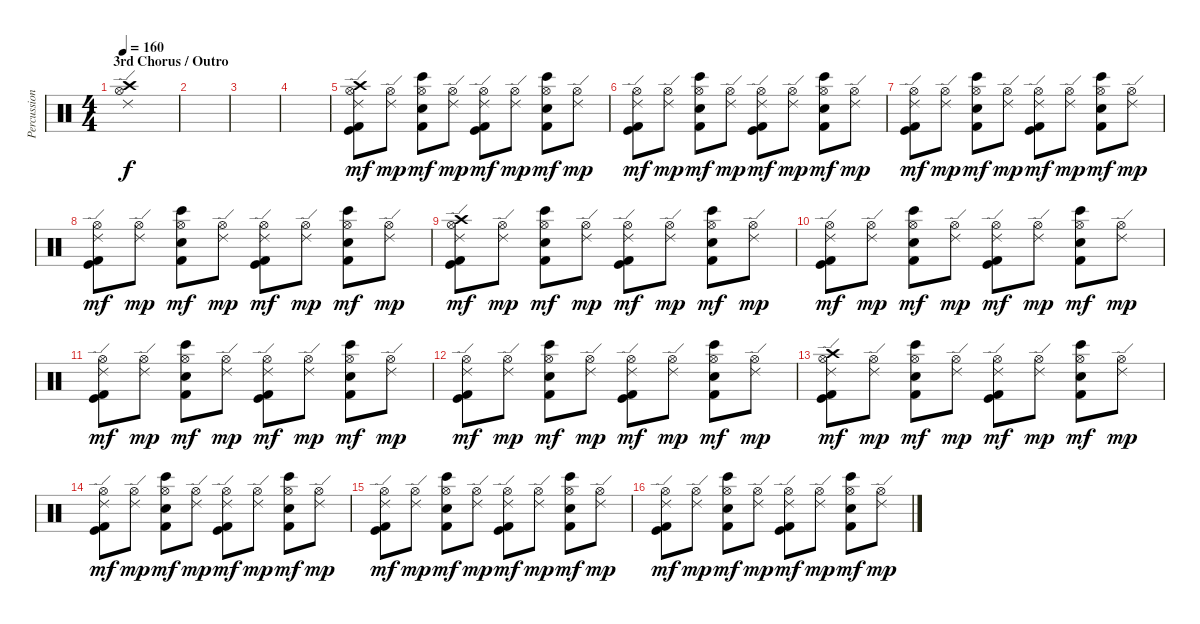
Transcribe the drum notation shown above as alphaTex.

\track ("Percussion" "Percussion") {instrument percussion}
\staff {score}
\articulation defaults
\ts (4 4)
\section ("" "3rd Chorus / Outro")
\tempo 160
\clef neutral
\ks c
("Crash high (hit)" "Ride (edge) 2" "Hi-Hat (open)").1{dy f} |
|
|
|
("Crash high (hit)" "Ride (edge) 2" "Hi-Hat (open)" "Kick (hit)" "Kick (hit) 2").8{dy mf} ("Ride (edge) 2" "Hi-Hat (open)").8{dy mp} ("Bongo High (hit)" "Hi-Hat (open)" "Hand Clap (hit)" "Kick (hit) 2").8{dy mf} ("Ride (edge) 2" "Hi-Hat (open)").8{dy mp} ("Ride (edge) 2" "Hi-Hat (open)" "Kick (hit)" "Kick (hit) 2").8{dy mf} ("Ride (edge) 2" "Hi-Hat (open)").8{dy mp} ("Bongo High (hit)" "Hi-Hat (open)" "Hand Clap (hit)" "Kick (hit) 2").8{dy mf} ("Ride (edge) 2" "Hi-Hat (open)").8{dy mp} |
("Ride (edge) 2" "Hi-Hat (open)" "Kick (hit)" "Kick (hit) 2").8{dy mf} ("Ride (edge) 2" "Hi-Hat (open)").8{dy mp} ("Bongo High (hit)" "Hi-Hat (open)" "Hand Clap (hit)" "Kick (hit) 2").8{dy mf} ("Ride (edge) 2" "Hi-Hat (open)").8{dy mp} ("Ride (edge) 2" "Hi-Hat (open)" "Kick (hit)" "Kick (hit) 2").8{dy mf} ("Ride (edge) 2" "Hi-Hat (open)").8{dy mp} ("Bongo High (hit)" "Hi-Hat (open)" "Hand Clap (hit)" "Kick (hit) 2").8{dy mf} ("Ride (edge) 2" "Hi-Hat (open)").8{dy mp} |
("Ride (edge) 2" "Hi-Hat (open)" "Kick (hit)" "Kick (hit) 2").8{dy mf} ("Ride (edge) 2" "Hi-Hat (open)").8{dy mp} ("Bongo High (hit)" "Hi-Hat (open)" "Hand Clap (hit)" "Kick (hit) 2").8{dy mf} ("Ride (edge) 2" "Hi-Hat (open)").8{dy mp} ("Ride (edge) 2" "Hi-Hat (open)" "Kick (hit)" "Kick (hit) 2").8{dy mf} ("Ride (edge) 2" "Hi-Hat (open)").8{dy mp} ("Bongo High (hit)" "Hi-Hat (open)" "Hand Clap (hit)" "Kick (hit) 2").8{dy mf} ("Ride (edge) 2" "Hi-Hat (open)").8{dy mp} |
("Ride (edge) 2" "Hi-Hat (open)" "Kick (hit)" "Kick (hit) 2").8{dy mf} ("Ride (edge) 2" "Hi-Hat (open)").8{dy mp} ("Bongo High (hit)" "Hi-Hat (open)" "Hand Clap (hit)" "Kick (hit) 2").8{dy mf} ("Ride (edge) 2" "Hi-Hat (open)").8{dy mp} ("Ride (edge) 2" "Hi-Hat (open)" "Kick (hit)" "Kick (hit) 2").8{dy mf} ("Ride (edge) 2" "Hi-Hat (open)").8{dy mp} ("Bongo High (hit)" "Hi-Hat (open)" "Hand Clap (hit)" "Kick (hit) 2").8{dy mf} ("Ride (edge) 2" "Hi-Hat (open)").8{dy mp} |
("Crash high (hit)" "Ride (edge) 2" "Hi-Hat (open)" "Kick (hit)" "Kick (hit) 2").8{dy mf} ("Ride (edge) 2" "Hi-Hat (open)").8{dy mp} ("Bongo High (hit)" "Hi-Hat (open)" "Hand Clap (hit)" "Kick (hit) 2").8{dy mf} ("Ride (edge) 2" "Hi-Hat (open)").8{dy mp} ("Ride (edge) 2" "Hi-Hat (open)" "Kick (hit)" "Kick (hit) 2").8{dy mf} ("Ride (edge) 2" "Hi-Hat (open)").8{dy mp} ("Bongo High (hit)" "Hi-Hat (open)" "Hand Clap (hit)" "Kick (hit) 2").8{dy mf} ("Ride (edge) 2" "Hi-Hat (open)").8{dy mp} |
("Ride (edge) 2" "Hi-Hat (open)" "Kick (hit)" "Kick (hit) 2").8{dy mf} ("Ride (edge) 2" "Hi-Hat (open)").8{dy mp} ("Bongo High (hit)" "Hi-Hat (open)" "Hand Clap (hit)" "Kick (hit) 2").8{dy mf} ("Ride (edge) 2" "Hi-Hat (open)").8{dy mp} ("Ride (edge) 2" "Hi-Hat (open)" "Kick (hit)" "Kick (hit) 2").8{dy mf} ("Ride (edge) 2" "Hi-Hat (open)").8{dy mp} ("Bongo High (hit)" "Hi-Hat (open)" "Hand Clap (hit)" "Kick (hit) 2").8{dy mf} ("Ride (edge) 2" "Hi-Hat (open)").8{dy mp} |
("Ride (edge) 2" "Hi-Hat (open)" "Kick (hit)" "Kick (hit) 2").8{dy mf} ("Ride (edge) 2" "Hi-Hat (open)").8{dy mp} ("Bongo High (hit)" "Hi-Hat (open)" "Hand Clap (hit)" "Kick (hit) 2").8{dy mf} ("Ride (edge) 2" "Hi-Hat (open)").8{dy mp} ("Ride (edge) 2" "Hi-Hat (open)" "Kick (hit)" "Kick (hit) 2").8{dy mf} ("Ride (edge) 2" "Hi-Hat (open)").8{dy mp} ("Bongo High (hit)" "Hi-Hat (open)" "Hand Clap (hit)" "Kick (hit) 2").8{dy mf} ("Ride (edge) 2" "Hi-Hat (open)").8{dy mp} |
("Ride (edge) 2" "Hi-Hat (open)" "Kick (hit)" "Kick (hit) 2").8{dy mf} ("Ride (edge) 2" "Hi-Hat (open)").8{dy mp} ("Bongo High (hit)" "Hi-Hat (open)" "Hand Clap (hit)" "Kick (hit) 2").8{dy mf} ("Ride (edge) 2" "Hi-Hat (open)").8{dy mp} ("Ride (edge) 2" "Hi-Hat (open)" "Kick (hit)" "Kick (hit) 2").8{dy mf} ("Ride (edge) 2" "Hi-Hat (open)").8{dy mp} ("Bongo High (hit)" "Hi-Hat (open)" "Hand Clap (hit)" "Kick (hit) 2").8{dy mf} ("Ride (edge) 2" "Hi-Hat (open)").8{dy mp} |
("Crash high (hit)" "Ride (edge) 2" "Hi-Hat (open)" "Kick (hit)" "Kick (hit) 2").8{dy mf} ("Ride (edge) 2" "Hi-Hat (open)").8{dy mp} ("Bongo High (hit)" "Hi-Hat (open)" "Hand Clap (hit)" "Kick (hit) 2").8{dy mf} ("Ride (edge) 2" "Hi-Hat (open)").8{dy mp} ("Ride (edge) 2" "Hi-Hat (open)" "Kick (hit)" "Kick (hit) 2").8{dy mf} ("Ride (edge) 2" "Hi-Hat (open)").8{dy mp} ("Bongo High (hit)" "Hi-Hat (open)" "Hand Clap (hit)" "Kick (hit) 2").8{dy mf} ("Ride (edge) 2" "Hi-Hat (open)").8{dy mp} |
("Ride (edge) 2" "Hi-Hat (open)" "Kick (hit)" "Kick (hit) 2").8{dy mf} ("Ride (edge) 2" "Hi-Hat (open)").8{dy mp} ("Bongo High (hit)" "Hi-Hat (open)" "Hand Clap (hit)" "Kick (hit) 2").8{dy mf} ("Ride (edge) 2" "Hi-Hat (open)").8{dy mp} ("Ride (edge) 2" "Hi-Hat (open)" "Kick (hit)" "Kick (hit) 2").8{dy mf} ("Ride (edge) 2" "Hi-Hat (open)").8{dy mp} ("Bongo High (hit)" "Hi-Hat (open)" "Hand Clap (hit)" "Kick (hit) 2").8{dy mf} ("Ride (edge) 2" "Hi-Hat (open)").8{dy mp} |
("Ride (edge) 2" "Hi-Hat (open)" "Kick (hit)" "Kick (hit) 2").8{dy mf} ("Ride (edge) 2" "Hi-Hat (open)").8{dy mp} ("Bongo High (hit)" "Hi-Hat (open)" "Hand Clap (hit)" "Kick (hit) 2").8{dy mf} ("Ride (edge) 2" "Hi-Hat (open)").8{dy mp} ("Ride (edge) 2" "Hi-Hat (open)" "Kick (hit)" "Kick (hit) 2").8{dy mf} ("Ride (edge) 2" "Hi-Hat (open)").8{dy mp} ("Bongo High (hit)" "Hi-Hat (open)" "Hand Clap (hit)" "Kick (hit) 2").8{dy mf} ("Ride (edge) 2" "Hi-Hat (open)").8{dy mp} |
("Ride (edge) 2" "Hi-Hat (open)" "Kick (hit)" "Kick (hit) 2").8{dy mf} ("Ride (edge) 2" "Hi-Hat (open)").8{dy mp} ("Bongo High (hit)" "Hi-Hat (open)" "Hand Clap (hit)" "Kick (hit) 2").8{dy mf} ("Ride (edge) 2" "Hi-Hat (open)").8{dy mp} ("Ride (edge) 2" "Hi-Hat (open)" "Kick (hit)" "Kick (hit) 2").8{dy mf} ("Ride (edge) 2" "Hi-Hat (open)").8{dy mp} ("Bongo High (hit)" "Hi-Hat (open)" "Hand Clap (hit)" "Kick (hit) 2").8{dy mf} ("Ride (edge) 2" "Hi-Hat (open)").8{dy mp}
